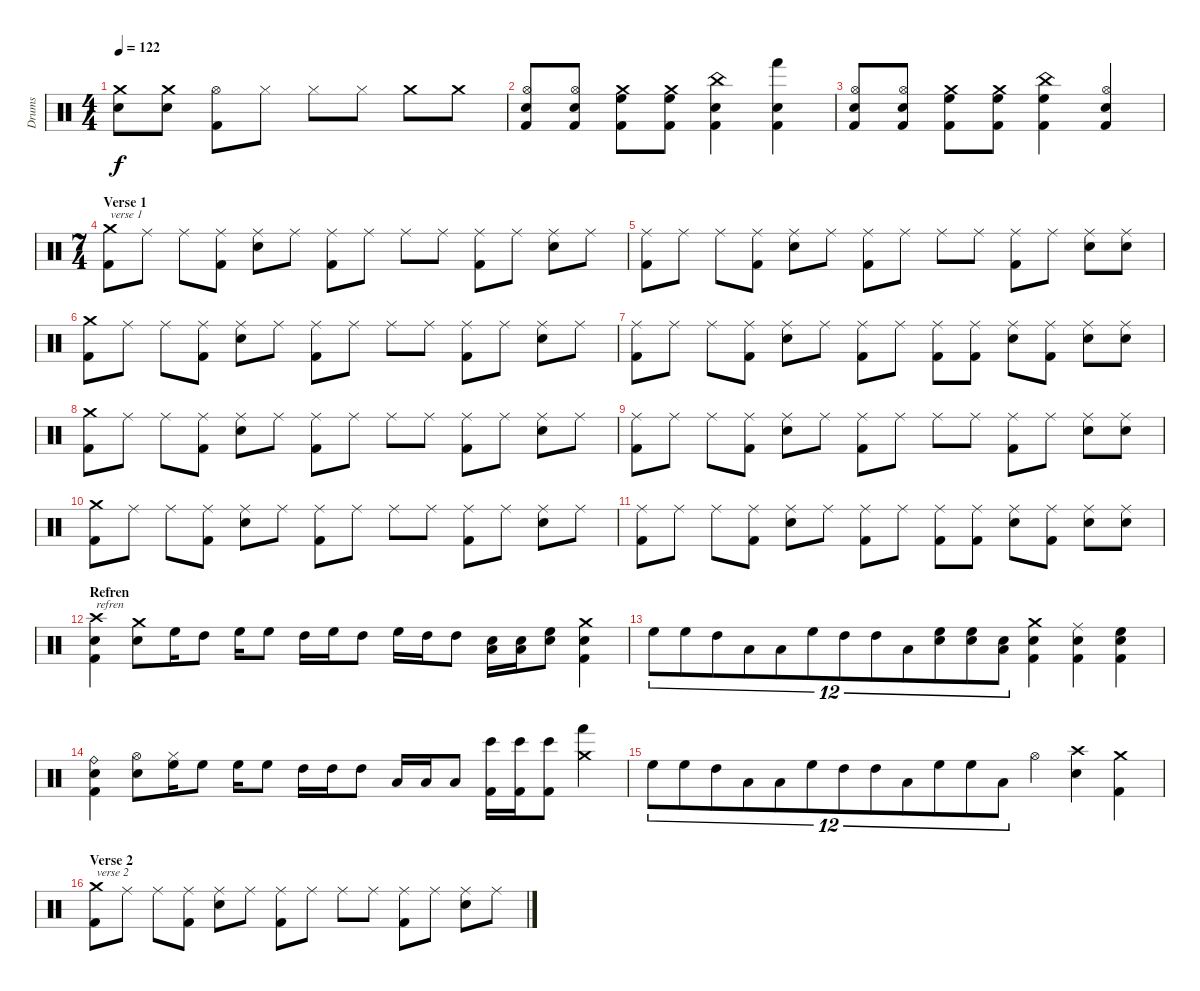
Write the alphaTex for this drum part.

\track ("Drums" "Drums") {instrument percussion}
\staff {score}
\articulation defaults
\ts (4 4)
\tempo 122
\clef neutral
\ks c
("Crash medium (hit)" "Snare (hit) 2").8{dy f} ("Crash medium (hit)" "Snare (hit) 2").8 ("Hi-Hat (open)" "Kick (hit) 2").8 "Hi-Hat (closed)".8 "Hi-Hat (closed)".8 "Hi-Hat (closed)".8 "Crash medium (hit)".8 "Crash medium (hit)".8 |
("Hi-Hat (open)" "Snare (hit) 2" "Kick (hit) 2").8 ("Hi-Hat (open)" "Snare (hit) 2" "Kick (hit) 2").8 ("Crash medium (hit)" "High Floor Tom (hit)" "Kick (hit) 2").8 ("Crash medium (hit)" "High Floor Tom (hit)" "Kick (hit) 2").8 ("China (hit)" "Snare (hit) 2" "Kick (hit) 2").4 ("Hand (hit)" "Snare (hit) 2" "Kick (hit) 2").4 |
("Hi-Hat (open)" "Snare (hit) 2" "Kick (hit) 2").8 ("Hi-Hat (open)" "Snare (hit) 2" "Kick (hit) 2").8 ("Crash medium (hit)" "High Floor Tom (hit)" "Kick (hit) 2").8 ("Crash medium (hit)" "High Floor Tom (hit)" "Kick (hit) 2").8 ("China (hit)" "High Floor Tom (hit)" "Kick (hit) 2").4 ("Hi-Hat (open)" "Snare (hit) 2" "Kick (hit) 2").4 |
\ts (7 4)
\section ("" "Verse 1")
("Crash medium (hit)" "Kick (hit) 2").8{txt "verse 1"} "Ride (middle)".8 "Ride (middle)".8 ("Ride (middle)" "Kick (hit) 2").8 ("Ride (middle)" "Snare (hit) 2").8 "Ride (middle)".8 ("Ride (middle)" "Kick (hit) 2").8 "Ride (middle)".8 "Ride (middle)".8 "Ride (middle)".8 ("Ride (middle)" "Kick (hit) 2").8 "Ride (middle)".8 ("Ride (middle)" "Snare (hit) 2").8 "Ride (middle)".8 |
("Ride (middle)" "Kick (hit) 2").8 "Ride (middle)".8 "Ride (middle)".8 ("Ride (middle)" "Kick (hit) 2").8 ("Ride (middle)" "Snare (hit) 2").8 "Ride (middle)".8 ("Ride (middle)" "Kick (hit) 2").8 "Ride (middle)".8 "Ride (middle)".8 "Ride (middle)".8 ("Ride (middle)" "Kick (hit) 2").8 "Ride (middle)".8 ("Ride (middle)" "Snare (hit) 2").8 ("Ride (middle)" "Snare (hit) 2").8 |
("Crash medium (hit)" "Kick (hit) 2").8 "Ride (middle)".8 "Ride (middle)".8 ("Ride (middle)" "Kick (hit) 2").8 ("Ride (middle)" "Snare (hit) 2").8 "Ride (middle)".8 ("Ride (middle)" "Kick (hit) 2").8 "Ride (middle)".8 "Ride (middle)".8 "Ride (middle)".8 ("Ride (middle)" "Kick (hit) 2").8 "Ride (middle)".8 ("Ride (middle)" "Snare (hit) 2").8 "Ride (middle)".8 |
("Ride (middle)" "Kick (hit) 2").8 "Ride (middle)".8 "Ride (middle)".8 ("Ride (middle)" "Kick (hit) 2").8 ("Ride (middle)" "Snare (hit) 2").8 "Ride (middle)".8 ("Ride (middle)" "Kick (hit) 2").8 "Ride (middle)".8 ("Ride (middle)" "Kick (hit) 2").8 ("Ride (middle)" "Kick (hit) 2").8 ("Ride (middle)" "Snare (hit) 2").8 ("Ride (middle)" "Kick (hit) 2").8 ("Ride (middle)" "Snare (hit) 2").8 ("Ride (middle)" "Snare (hit) 2").8 |
("Crash medium (hit)" "Kick (hit) 2").8 "Ride (middle)".8 "Ride (middle)".8 ("Ride (middle)" "Kick (hit) 2").8 ("Ride (middle)" "Snare (hit) 2").8 "Ride (middle)".8 ("Ride (middle)" "Kick (hit) 2").8 "Ride (middle)".8 "Ride (middle)".8 "Ride (middle)".8 ("Ride (middle)" "Kick (hit) 2").8 "Ride (middle)".8 ("Ride (middle)" "Snare (hit) 2").8 "Ride (middle)".8 |
("Ride (middle)" "Kick (hit) 2").8 "Ride (middle)".8 "Ride (middle)".8 ("Ride (middle)" "Kick (hit) 2").8 ("Ride (middle)" "Snare (hit) 2").8 "Ride (middle)".8 ("Ride (middle)" "Kick (hit) 2").8 "Ride (middle)".8 "Ride (middle)".8 "Ride (middle)".8 ("Ride (middle)" "Kick (hit) 2").8 "Ride (middle)".8 ("Ride (middle)" "Snare (hit) 2").8 ("Ride (middle)" "Snare (hit) 2").8 |
("Crash medium (hit)" "Kick (hit) 2").8 "Ride (middle)".8 "Ride (middle)".8 ("Ride (middle)" "Kick (hit) 2").8 ("Ride (middle)" "Snare (hit) 2").8 "Ride (middle)".8 ("Ride (middle)" "Kick (hit) 2").8 "Ride (middle)".8 "Ride (middle)".8 "Ride (middle)".8 ("Ride (middle)" "Kick (hit) 2").8 "Ride (middle)".8 ("Ride (middle)" "Snare (hit) 2").8 "Ride (middle)".8 |
("Ride (middle)" "Kick (hit) 2").8 "Ride (middle)".8 "Ride (middle)".8 ("Ride (middle)" "Kick (hit) 2").8 ("Ride (middle)" "Snare (hit) 2").8 "Ride (middle)".8 ("Ride (middle)" "Kick (hit) 2").8 "Ride (middle)".8 ("Ride (middle)" "Kick (hit) 2").8 ("Ride (middle)" "Kick (hit) 2").8 ("Ride (middle)" "Snare (hit) 2").8 ("Ride (middle)" "Kick (hit) 2").8 ("Ride (middle)" "Snare (hit) 2").8 ("Ride (middle)" "Snare (hit) 2").8 |
\section ("" "Refren")
("Crash high (hit)" "Snare (hit) 2" "Kick (hit) 2").4{txt "refren"} ("Crash medium (hit)" "Snare (hit) 2").8 "High Floor Tom (hit)".16 "High Tom (hit)".8 "High Floor Tom (hit)".16 "High Floor Tom (hit)".8 "High Tom (hit)".16 "High Floor Tom (hit)".16 "High Tom (hit)".8 "High Floor Tom (hit)".16 "High Tom (hit)".16 "High Tom (hit)".8 ("Low Tom (hit)" "Snare (hit) 2").16 ("Low Tom (hit)" "Snare (hit) 2").16 ("High Floor Tom (hit)" "Snare (hit) 2").8 ("Crash medium (hit)" "Snare (hit) 2" "Kick (hit) 2").4 |
"High Floor Tom (hit)".8{tu (12 8)} "High Floor Tom (hit)".8{tu (12 8)} "High Tom (hit)".8{tu (12 8)} "Low Tom (hit)".8{tu (12 8)} "Low Tom (hit)".8{tu (12 8)} "High Floor Tom (hit)".8{tu (12 8)} "High Tom (hit)".8{tu (12 8)} "High Tom (hit)".8{tu (12 8)} "Low Tom (hit)".8{tu (12 8)} ("High Floor Tom (hit)" "Snare (hit) 2").8{tu (12 8)} ("High Floor Tom (hit)" "Snare (hit) 2").8{tu (12 8)} ("Low Tom (hit)" "Snare (hit) 2").8{tu (12 8)} ("Crash medium (hit)" "Snare (hit) 2" "Kick (hit) 2").4 ("Ride (middle)" "Snare (hit) 2" "Kick (hit) 2").4 ("High Floor Tom (hit)" "Snare (hit) 2" "Kick (hit) 2").4 |
("Ride (bell)" "Snare (hit) 2" "Kick (hit) 2").4 ("Hi-Hat (open)" "Snare (hit) 2").8 ("Hi-Hat (closed)" "High Floor Tom (hit)").16 "High Floor Tom (hit)".8 "High Floor Tom (hit)".16 "High Floor Tom (hit)".8 "High Tom (hit)".16 "High Tom (hit)".16 "High Tom (hit)".8 "Low Tom (hit)".16 "Low Tom (hit)".16 "Low Tom (hit)".8 ("Bongo High (hit)" "Kick (hit) 2").16 ("Bongo High (hit)" "Kick (hit) 2").16 ("Bongo High (hit)" "Kick (hit) 2").8 ("Crash medium (hit)" "Hand (hit)").4 |
"High Floor Tom (hit)".8{tu (12 8)} "High Floor Tom (hit)".8{tu (12 8)} "High Tom (hit)".8{tu (12 8)} "Low Tom (hit)".8{tu (12 8)} "Low Tom (hit)".8{tu (12 8)} "High Floor Tom (hit)".8{tu (12 8)} "High Tom (hit)".8{tu (12 8)} "High Tom (hit)".8{tu (12 8)} "Low Tom (hit)".8{tu (12 8)} "High Floor Tom (hit)".8{tu (12 8)} "High Floor Tom (hit)".8{tu (12 8)} "Low Tom (hit)".8{tu (12 8)} "Hi-Hat (open)".4 ("Crash high (hit)" "Snare (hit) 2").4 ("Crash medium (hit)" "Kick (hit) 2").4 |
\section ("" "Verse 2")
("Crash medium (hit)" "Kick (hit) 2").8{txt "verse 2"} "Ride (middle)".8 "Ride (middle)".8 ("Ride (middle)" "Kick (hit) 2").8 ("Ride (middle)" "Snare (hit) 2").8 "Ride (middle)".8 ("Ride (middle)" "Kick (hit) 2").8 "Ride (middle)".8 "Ride (middle)".8 "Ride (middle)".8 ("Ride (middle)" "Kick (hit) 2").8 "Ride (middle)".8 ("Ride (middle)" "Snare (hit) 2").8 "Ride (middle)".8
